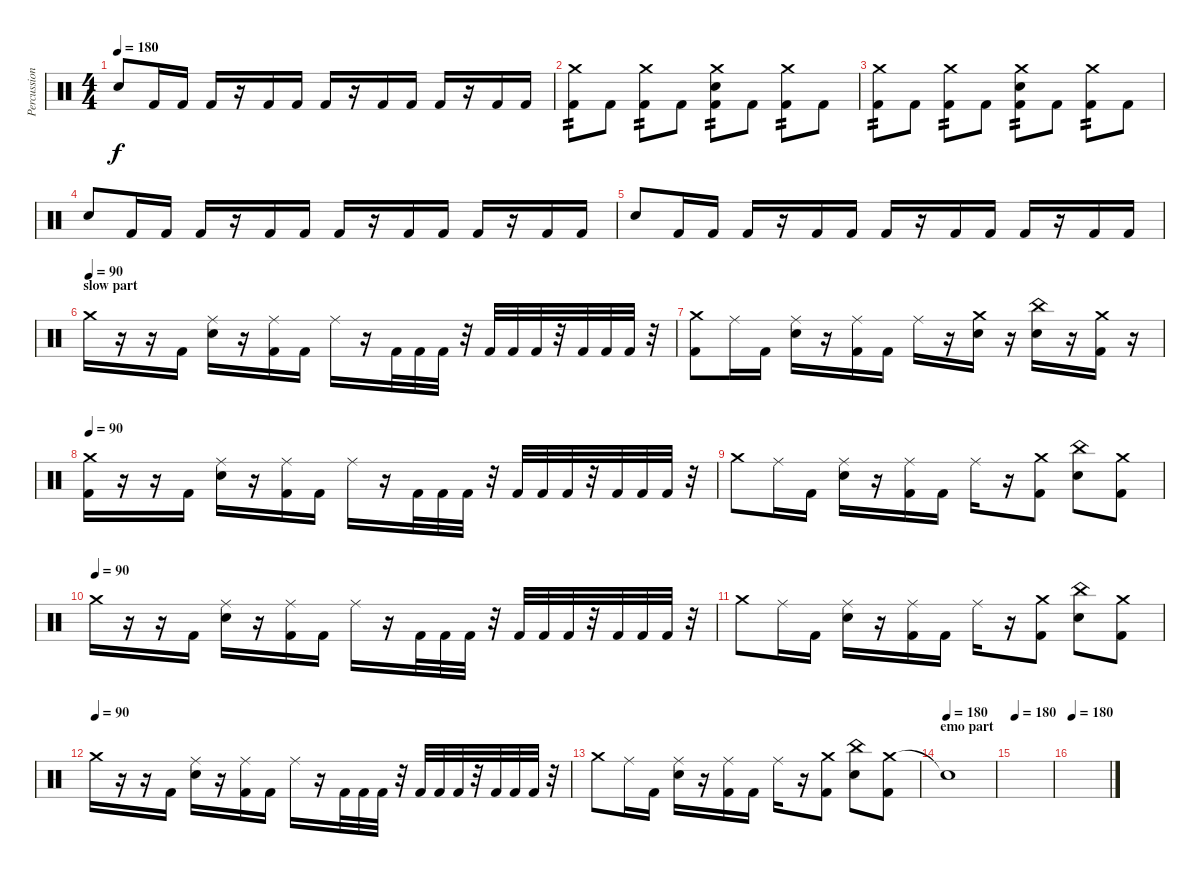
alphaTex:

\track ("Percussion" "Percussion") {instrument percussion}
\staff {score}
\articulation defaults
\ts (4 4)
\tempo 180
\clef neutral
\ks c "Electric Snare (hit)".8{dy f} "Kick (hit) 2".16 "Kick (hit) 2".16 "Kick (hit) 2".16
r.16 "Kick (hit) 2".16 "Kick (hit) 2".16 "Kick (hit) 2".16 r.16 "Kick (hit) 2".16 "Kick (hit) 2".16 "Kick (hit) 2".16 r.16 "Kick (hit) 2".16 "Kick (hit) 2".16 |
("Crash medium (hit)" "Kick (hit) 2").8{tp 2} "Kick (hit) 2".8 ("Crash medium (hit)" "Kick (hit) 2").8{tp 2} "Kick (hit) 2".8 ("Crash medium (hit)" "Electric Snare (hit)" "Kick (hit) 2").8{tp 2} "Kick (hit) 2".8 ("Crash medium (hit)" "Kick (hit) 2").8{tp 2} "Kick (hit) 2".8 |
("Crash medium (hit)" "Kick (hit) 2").8{tp 2} "Kick (hit) 2".8 ("Crash medium (hit)" "Kick (hit) 2").8{tp 2} "Kick (hit) 2".8 ("Crash medium (hit)" "Electric Snare (hit)" "Kick (hit) 2").8{tp 2} "Kick (hit) 2".8 ("Crash medium (hit)" "Kick (hit) 2").8{tp 2} "Kick (hit) 2".8 |
"Electric Snare (hit)".8 "Kick (hit) 2".16 "Kick (hit) 2".16 "Kick (hit) 2".16 r.16 "Kick (hit) 2".16 "Kick (hit) 2".16 "Kick (hit) 2".16 r.16 "Kick (hit) 2".16 "Kick (hit) 2".16 "Kick (hit) 2".16 r.16 "Kick (hit) 2".16 "Kick (hit) 2".16 |
"Electric Snare (hit)".8 "Kick (hit) 2".16 "Kick (hit) 2".16 "Kick (hit) 2".16 r.16 "Kick (hit) 2".16 "Kick (hit) 2".16 "Kick (hit) 2".16 r.16 "Kick (hit) 2".16 "Kick (hit) 2".16 "Kick (hit) 2".16 r.16 "Kick (hit) 2".16 "Kick (hit) 2".16 |
\section ("" "slow part")
\tempo (90)
"Crash medium (hit)".16 r.16 r.16 "Kick (hit) 2".16 ("Ride (middle)" "Electric Snare (hit)").16 r.16 ("Ride (middle)" "Kick (hit) 2").16 "Kick (hit) 2".16 "Ride (middle)".16 r.16 "Kick (hit) 2".32 "Kick (hit) 2".32 "Kick (hit) 2".32 r.32 "Kick (hit) 2".32 "Kick (hit) 2".32 "Kick (hit) 2".32 r.32 "Kick (hit) 2".32 "Kick (hit) 2".32 "Kick (hit) 2".32 r.32 |
("Crash medium (hit)" "Kick (hit) 2").8 "Ride (middle)".16 "Kick (hit) 2".16 ("Ride (middle)" "Electric Snare (hit)").16 r.16 ("Ride (middle)" "Kick (hit) 2").16 "Kick (hit) 2".16 "Ride (middle)".16 r.16 ("Crash medium (hit)" "Electric Snare (hit)").16 r.16 ("China (hit)" "Electric Snare (hit)").16 r.16 ("Crash medium (hit)" "Kick (hit) 2").16 r.16 |
\tempo 90
("Crash medium (hit)" "Kick (hit) 2").16 r.16 r.16 "Kick (hit) 2".16 ("Ride (middle)" "Electric Snare (hit)").16 r.16 ("Ride (middle)" "Kick (hit) 2").16 "Kick (hit) 2".16 "Ride (middle)".16 r.16 "Kick (hit) 2".32 "Kick (hit) 2".32 "Kick (hit) 2".32 r.32 "Kick (hit) 2".32 "Kick (hit) 2".32 "Kick (hit) 2".32 r.32 "Kick (hit) 2".32 "Kick (hit) 2".32 "Kick (hit) 2".32 r.32 |
"Crash medium (hit)".8 "Ride (middle)".16 "Kick (hit) 2".16 ("Ride (middle)" "Electric Snare (hit)").16 r.16 ("Ride (middle)" "Kick (hit) 2").16 "Kick (hit) 2".16 "Ride (middle)".16 r.16 ("Crash medium (hit)" "Kick (hit) 2").8 ("China (hit)" "Electric Snare (hit)").8 ("Crash medium (hit)" "Kick (hit) 2").8 |
\tempo (90)
"Crash medium (hit)".16 r.16 r.16 "Kick (hit) 2".16 ("Ride (middle)" "Electric Snare (hit)").16 r.16 ("Ride (middle)" "Kick (hit) 2").16 "Kick (hit) 2".16 "Ride (middle)".16 r.16 "Kick (hit) 2".32 "Kick (hit) 2".32 "Kick (hit) 2".32 r.32 "Kick (hit) 2".32 "Kick (hit) 2".32 "Kick (hit) 2".32 r.32 "Kick (hit) 2".32 "Kick (hit) 2".32 "Kick (hit) 2".32 r.32 |
"Crash medium (hit)".8 "Ride (middle)".16 "Kick (hit) 2".16 ("Ride (middle)" "Electric Snare (hit)").16 r.16 ("Ride (middle)" "Kick (hit) 2").16 "Kick (hit) 2".16 "Ride (middle)".16 r.16 ("Crash medium (hit)" "Kick (hit) 2").8 ("China (hit)" "Electric Snare (hit)").8 ("Crash medium (hit)" "Kick (hit) 2").8 |
\tempo (90)
"Crash medium (hit)".16 r.16 r.16 "Kick (hit) 2".16 ("Ride (middle)" "Electric Snare (hit)").16 r.16 ("Ride (middle)" "Kick (hit) 2").16 "Kick (hit) 2".16 "Ride (middle)".16 r.16 "Kick (hit) 2".32 "Kick (hit) 2".32 "Kick (hit) 2".32 r.32 "Kick (hit) 2".32 "Kick (hit) 2".32 "Kick (hit) 2".32 r.32 "Kick (hit) 2".32 "Kick (hit) 2".32 "Kick (hit) 2".32 r.32 |
"Crash medium (hit)".8 "Ride (middle)".16 "Kick (hit) 2".16 ("Ride (middle)" "Electric Snare (hit)").16 r.16 ("Ride (middle)" "Kick (hit) 2").16 "Kick (hit) 2".16 "Ride (middle)".16 r.16 ("Crash medium (hit)" "Kick (hit) 2").8 ("China (hit)" "Electric Snare (hit)").8 ("Crash medium (hit)" "Kick (hit) 2").8 |
\section ("" "emo part")
\tempo (180)
"Snare (hit)"{t}.1 |
\tempo 180
|
\tempo 180
